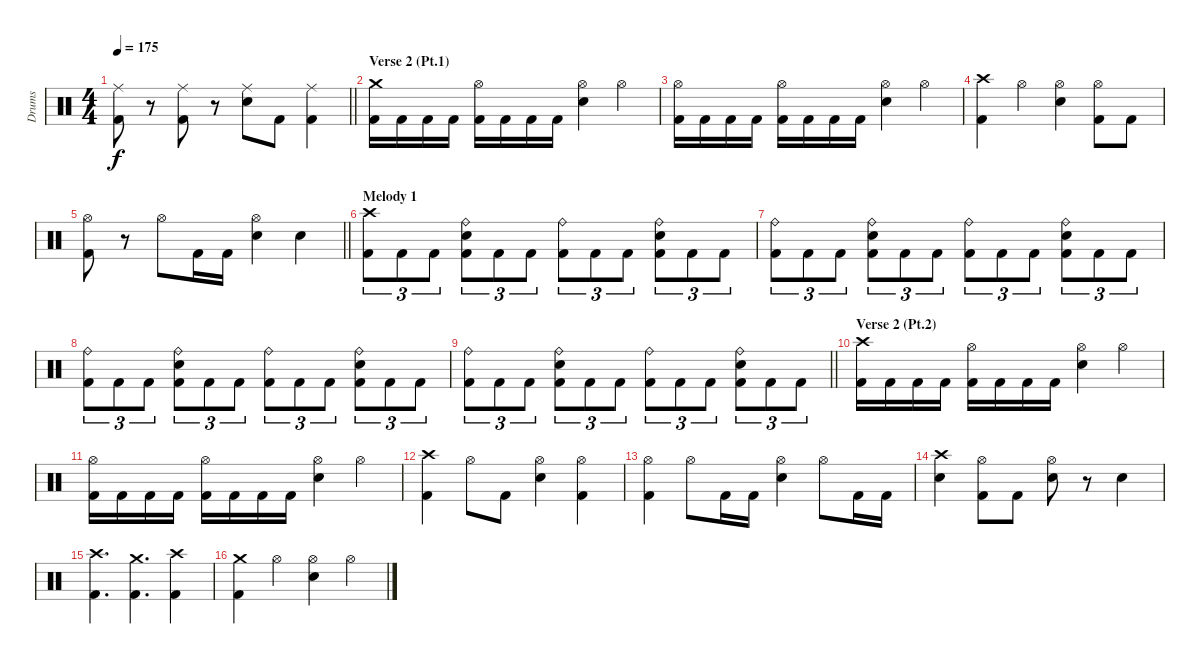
\track ("Drums" "Drums") {instrument percussion}
\staff {score}
\articulation defaults
\ts (4 4)
\tempo 175
\clef neutral
\barLineRight lightlight
\ks c
("Ride (middle)" "Kick (hit) 2").8{dy f} r.8 ("Ride (middle)" "Kick (hit) 2").8 r.8 ("Ride (middle)" "Electric Snare (hit)").8 "Kick (hit) 2".8 ("Ride (middle)" "Kick (hit) 2").4 |
\section ("" "Verse 2 (Pt.1)")
("Crash medium (hit)" "Kick (hit) 2").16 "Kick (hit) 2".16 "Kick (hit) 2".16 "Kick (hit) 2".16 ("Hi-Hat (open)" "Kick (hit) 2").16 "Kick (hit) 2".16 "Kick (hit) 2".16 "Kick (hit) 2".16 ("Hi-Hat (open)" "Electric Snare (hit)").4 "Hi-Hat (open)".4 |
("Hi-Hat (open)" "Kick (hit) 2").16 "Kick (hit) 2".16 "Kick (hit) 2".16 "Kick (hit) 2".16 ("Hi-Hat (open)" "Kick (hit) 2").16 "Kick (hit) 2".16 "Kick (hit) 2".16 "Kick (hit) 2".16 ("Hi-Hat (open)" "Electric Snare (hit)").4 "Hi-Hat (open)".4 |
("Crash high (hit)" "Kick (hit) 2").4 "Hi-Hat (open)".4 ("Hi-Hat (open)" "Electric Snare (hit)").4 ("Hi-Hat (open)" "Kick (hit) 2").8 "Kick (hit) 2".8 |
\barLineRight lightlight
("Hi-Hat (open)" "Kick (hit) 2").8 r.8 "Hi-Hat (open)".8 "Kick (hit) 2".16 "Kick (hit) 2".16 ("Hi-Hat (open)" "Electric Snare (hit)").4 "Electric Snare (hit)".4 |
\section ("" "Melody 1")
("Crash high (hit)" "Kick (hit) 2").8{tu (3 2)} "Kick (hit) 2".8{tu (3 2)} "Kick (hit) 2".8{tu (3 2)} ("Ride (bell)" "Electric Snare (hit)" "Kick (hit) 2").8{tu (3 2)} "Kick (hit) 2".8{tu (3 2)} "Kick (hit) 2".8{tu (3 2)} ("Ride (bell)" "Kick (hit) 2").8{tu (3 2)} "Kick (hit) 2".8{tu (3 2)} "Kick (hit) 2".8{tu (3 2)} ("Ride (bell)" "Electric Snare (hit)" "Kick (hit) 2").8{tu (3 2)} "Kick (hit) 2".8{tu (3 2)} "Kick (hit) 2".8{tu (3 2)} |
("Ride (bell)" "Kick (hit) 2").8{tu (3 2)} "Kick (hit) 2".8{tu (3 2)} "Kick (hit) 2".8{tu (3 2)} ("Ride (bell)" "Electric Snare (hit)" "Kick (hit) 2").8{tu (3 2)} "Kick (hit) 2".8{tu (3 2)} "Kick (hit) 2".8{tu (3 2)} ("Ride (bell)" "Kick (hit) 2").8{tu (3 2)} "Kick (hit) 2".8{tu (3 2)} "Kick (hit) 2".8{tu (3 2)} ("Ride (bell)" "Electric Snare (hit)" "Kick (hit) 2").8{tu (3 2)} "Kick (hit) 2".8{tu (3 2)} "Kick (hit) 2".8{tu (3 2)} |
("Ride (bell)" "Kick (hit) 2").8{tu (3 2)} "Kick (hit) 2".8{tu (3 2)} "Kick (hit) 2".8{tu (3 2)} ("Ride (bell)" "Electric Snare (hit)" "Kick (hit) 2").8{tu (3 2)} "Kick (hit) 2".8{tu (3 2)} "Kick (hit) 2".8{tu (3 2)} ("Ride (bell)" "Kick (hit) 2").8{tu (3 2)} "Kick (hit) 2".8{tu (3 2)} "Kick (hit) 2".8{tu (3 2)} ("Ride (bell)" "Electric Snare (hit)" "Kick (hit) 2").8{tu (3 2)} "Kick (hit) 2".8{tu (3 2)} "Kick (hit) 2".8{tu (3 2)} |
\barLineRight lightlight
("Ride (bell)" "Kick (hit) 2").8{tu (3 2)} "Kick (hit) 2".8{tu (3 2)} "Kick (hit) 2".8{tu (3 2)} ("Ride (bell)" "Electric Snare (hit)" "Kick (hit) 2").8{tu (3 2)} "Kick (hit) 2".8{tu (3 2)} "Kick (hit) 2".8{tu (3 2)} ("Ride (bell)" "Kick (hit) 2").8{tu (3 2)} "Kick (hit) 2".8{tu (3 2)} "Kick (hit) 2".8{tu (3 2)} ("Ride (bell)" "Electric Snare (hit)" "Kick (hit) 2").8{tu (3 2)} "Kick (hit) 2".8{tu (3 2)} "Kick (hit) 2".8{tu (3 2)} |
\section ("" "Verse 2 (Pt.2)")
("Crash high (hit)" "Kick (hit) 2").16 "Kick (hit) 2".16 "Kick (hit) 2".16 "Kick (hit) 2".16 ("Hi-Hat (open)" "Kick (hit) 2").16 "Kick (hit) 2".16 "Kick (hit) 2".16 "Kick (hit) 2".16 ("Hi-Hat (open)" "Electric Snare (hit)").4 "Hi-Hat (open)".4 |
("Hi-Hat (open)" "Kick (hit) 2").16 "Kick (hit) 2".16 "Kick (hit) 2".16 "Kick (hit) 2".16 ("Hi-Hat (open)" "Kick (hit) 2").16 "Kick (hit) 2".16 "Kick (hit) 2".16 "Kick (hit) 2".16 ("Hi-Hat (open)" "Electric Snare (hit)").4 "Hi-Hat (open)".4 |
("Crash high (hit)" "Kick (hit) 2").4 "Hi-Hat (open)".8 "Kick (hit) 2".8 ("Hi-Hat (open)" "Electric Snare (hit)").4 ("Hi-Hat (open)" "Kick (hit) 2").4 |
("Hi-Hat (open)" "Kick (hit) 2").4 "Hi-Hat (open)".8 "Kick (hit) 2".16 "Kick (hit) 2".16 ("Hi-Hat (open)" "Electric Snare (hit)").4 "Hi-Hat (open)".8 "Kick (hit) 2".16 "Kick (hit) 2".16 |
("Crash high (hit)" "Electric Snare (hit)").4 ("Hi-Hat (open)" "Kick (hit) 2").8 "Kick (hit) 2".8 ("Hi-Hat (open)" "Electric Snare (hit)").8 r.8 "Electric Snare (hit)".4 |
("Crash high (hit)" "Kick (hit) 2").4{d} ("Crash medium (hit)" "Kick (hit) 2").4{d} ("Crash high (hit)" "Kick (hit) 2").4 |
("Crash medium (hit)" "Kick (hit) 2").4 "Hi-Hat (open)".4 ("Hi-Hat (open)" "Electric Snare (hit)").4 "Hi-Hat (open)".4
